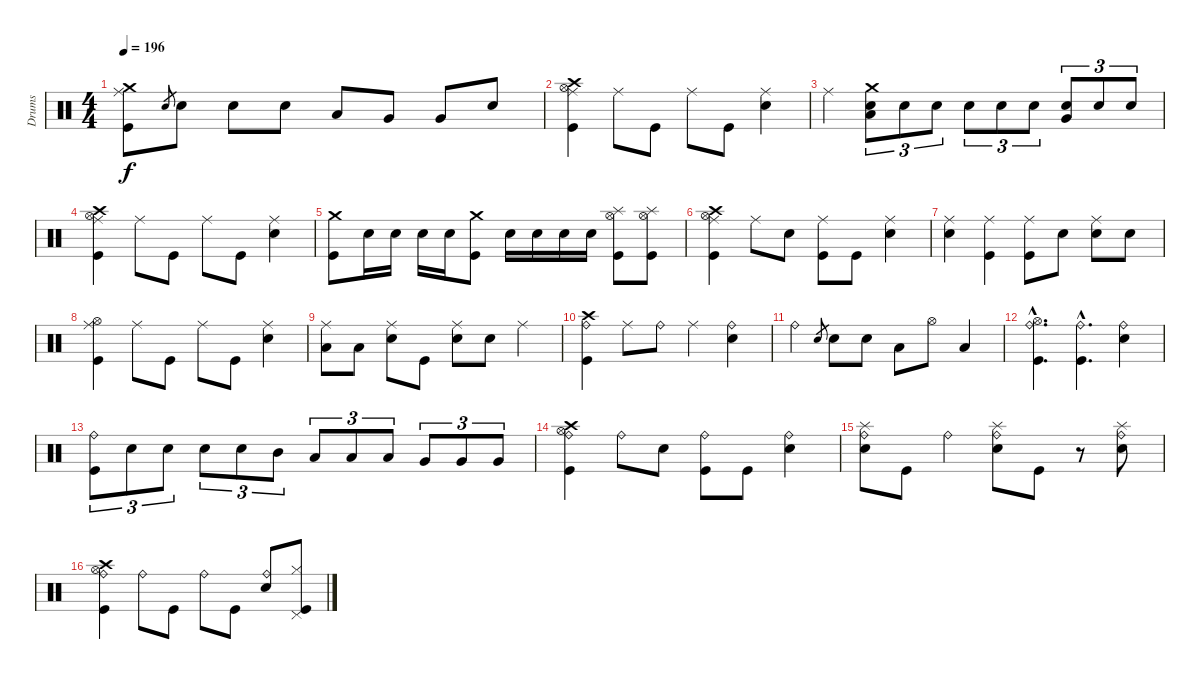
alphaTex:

\track ("Drums" "Drums") {instrument percussion}
\staff {score}
\articulation defaults
\ts (4 4)
\tempo 196
\clef neutral
\ks c
("Crash medium (hit)" "Ride (middle)" "Kick (hit)").8{dy f} "Electric Snare (hit)".8{gr} "Electric Snare (hit)".8 "Electric Snare (hit)".8 "Electric Snare (hit)".8 "Low Tom (hit)".8 "Very Low Tom (hit)".8 "Very Low Tom (hit)".8 "Electric Snare (hit)".8 |
("Ride (middle)" "Crash high (hit)" "Hi-Hat (open)" "Kick (hit)").4 "Ride (middle)".8 "Kick (hit)".8 "Ride (middle)".8 "Kick (hit)".8 ("Ride (middle)" "Electric Snare (hit)").4 |
"Ride (middle)".4 ("Crash medium (hit)" "Low Tom (hit)" "Electric Snare (hit)").8{tu (3 2)} "Electric Snare (hit)".8{tu (3 2)} "Electric Snare (hit)".8{tu (3 2)} "Electric Snare (hit)".8{tu (3 2)} "Electric Snare (hit)".8{tu (3 2)} "Electric Snare (hit)".8{tu (3 2)} ("Very Low Tom (hit)" "Electric Snare (hit)").8{tu (3 2)} "Electric Snare (hit)".8{tu (3 2)} "Electric Snare (hit)".8{tu (3 2)} |
("Ride (middle)" "Crash high (hit)" "Hi-Hat (open)" "Kick (hit)").4 "Ride (middle)".8 "Kick (hit)".8 "Ride (middle)".8 "Kick (hit)".8 ("Ride (middle)" "Electric Snare (hit)").4 |
("Crash medium (hit)" "Kick (hit)").8 "Electric Snare (hit)".16 "Electric Snare (hit)".16 "Electric Snare (hit)".16 "Electric Snare (hit)".16 ("Crash medium (hit)" "Kick (hit)").8 "Electric Snare (hit)".16 "Electric Snare (hit)".16 "Electric Snare (hit)".16 "Electric Snare (hit)".16 ("Splash (hit)" "Hi-Hat (open)" "Kick (hit)").8 ("Splash (hit)" "Hi-Hat (open)" "Kick (hit)").8 |
("Ride (middle)" "Crash high (hit)" "Hi-Hat (open)" "Kick (hit)").4 "Ride (middle)".8 "Electric Snare (hit)".8 ("Ride (middle)" "Kick (hit)").8 "Kick (hit)".8 ("Ride (middle)" "Electric Snare (hit)").4 |
("Ride (middle)" "Electric Snare (hit)").4 ("Ride (middle)" "Kick (hit)").4 ("Ride (middle)" "Kick (hit)").8 "Electric Snare (hit)".8 ("Ride (middle)" "Electric Snare (hit)").8 "Electric Snare (hit)".8 |
("Ride (middle)" "Hi-Hat (open)" "Kick (hit)").4 "Ride (middle)".8 "Kick (hit)".8 "Ride (middle)".8 "Kick (hit)".8 ("Ride (middle)" "Electric Snare (hit)").4 |
("Ride (middle)" "Low Tom (hit)").8 "Low Tom (hit)".8 ("Ride (middle)" "Electric Snare (hit)").8 "Kick (hit)".8 ("Ride (middle)" "Electric Snare (hit)").8 "Electric Snare (hit)".8 "Ride (middle)".4 |
("Crash high (hit)" "Ride (bell)" "Kick (hit)").4 "Ride (middle)".8 "Ride (bell)".8 "Ride (middle)".4 ("Ride (bell)" "Electric Snare (hit)").4 |
"Ride (bell)".4 "Electric Snare (hit)".8{gr} "Electric Snare (hit)".8 "Electric Snare (hit)".8 "Low Tom (hit)".8 "Hi-Hat (open)".8 "Low Tom (hit)".4 |
("Ride (bell)"{hac} "Hi-Hat (open)"{hac} "Kick (hit)"{hac}).4{d} ("Ride (bell)"{hac} "Kick (hit)"{hac}).4{d} ("Ride (bell)" "Electric Snare (hit)").4 |
("Ride (bell)" "Kick (hit)").8{tu (3 2)} "Electric Snare (hit)".8{tu (3 2)} "Electric Snare (hit)".8{tu (3 2)} "Electric Snare (hit)".8{tu (3 2)} "Electric Snare (hit)".8{tu (3 2)} "Mid Tom (hit)".8{tu (3 2)} "Low Tom (hit)".8{tu (3 2)} "Low Tom (hit)".8{tu (3 2)} "Low Tom (hit)".8{tu (3 2)} "Very Low Tom (hit)".8{tu (3 2)} "Very Low Tom (hit)".8{tu (3 2)} "Very Low Tom (hit)".8{tu (3 2)} |
("Crash high (hit)" "Ride (bell)" "Hi-Hat (open)" "Kick (hit)").4 "Ride (bell)".8 "Electric Snare (hit)".8 ("Ride (bell)" "Kick (hit)").8 "Kick (hit)".8 ("Ride (bell)" "Electric Snare (hit)").4 |
("Splash (hit)" "Ride (bell)" "Electric Snare (hit)").8 "Kick (hit)".8 "Ride (bell)".4 ("Splash (hit)" "Ride (bell)" "Electric Snare (hit)").8 "Kick (hit)".8 r.8 ("Splash (hit)" "Ride (bell)" "Electric Snare (hit)").8 |
("Ride (bell)" "Crash high (hit)" "Hi-Hat (open)" "Kick (hit)").4 "Ride (bell)".8 "Kick (hit)".8 "Ride (bell)".8 "Kick (hit)".8 ("Ride (bell)" "Electric Snare (hit)").8 ("Hi-Hat (closed)" "Pedal Hi-Hat (hit)" "Kick (hit)").8
